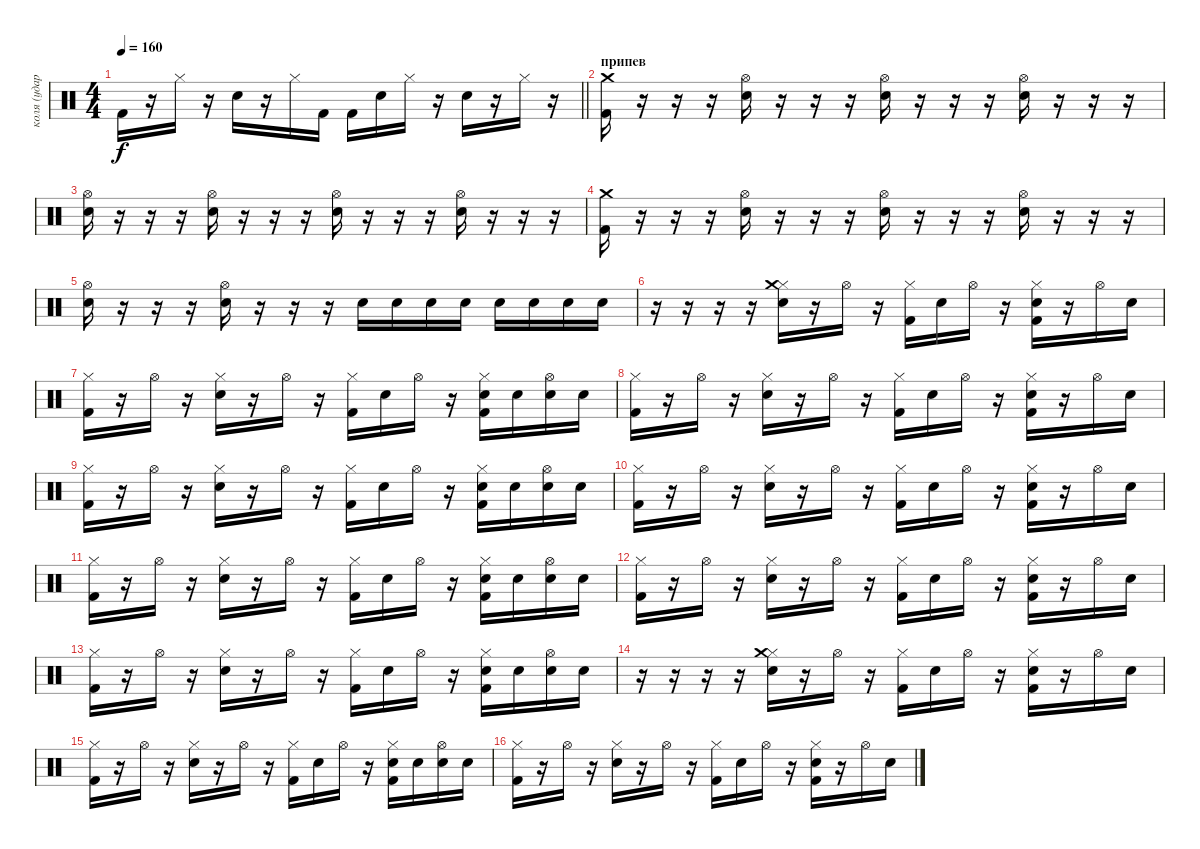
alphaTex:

\track ("коля (ударные)" "коля (удар") {instrument percussion}
\staff {score}
\articulation defaults
\ts (4 4)
\tempo 160
\clef neutral
\barLineRight lightlight
\ks c "Kick (hit) 2".16{dy f}
r.16 "Hi-Hat (closed)".16 r.16 "Snare (hit) 2".16 r.16 "Hi-Hat (closed)".16 "Kick (hit) 2".16 "Kick (hit) 2".16 "Snare (hit) 2".16 "Hi-Hat (closed)".16 r.16 "Snare (hit) 2".16 r.16 "Hi-Hat (closed)".16 r.16 |
\section ("" "припев")
("Kick (hit) 2" "Crash medium (hit)").16 r.16 r.16 r.16 ("Snare (hit) 2" "Hi-Hat (open)").16 r.16 r.16 r.16 ("Snare (hit) 2" "Hi-Hat (open)").16 r.16 r.16 r.16 ("Snare (hit) 2" "Hi-Hat (open)").16 r.16 r.16 r.16 |
("Snare (hit) 2" "Hi-Hat (open)").16 r.16 r.16 r.16 ("Snare (hit) 2" "Hi-Hat (open)").16 r.16 r.16 r.16 ("Snare (hit) 2" "Hi-Hat (open)").16 r.16 r.16 r.16 ("Snare (hit) 2" "Hi-Hat (open)").16 r.16 r.16 r.16 |
("Kick (hit) 2" "Crash medium (hit)").16 r.16 r.16 r.16 ("Snare (hit) 2" "Hi-Hat (open)").16 r.16 r.16 r.16 ("Snare (hit) 2" "Hi-Hat (open)").16 r.16 r.16 r.16 ("Snare (hit) 2" "Hi-Hat (open)").16 r.16 r.16 r.16 |
("Snare (hit) 2" "Hi-Hat (open)").16 r.16 r.16 r.16 ("Snare (hit) 2" "Hi-Hat (open)").16 r.16 r.16 r.16 "Snare (hit) 2".16 "Snare (hit) 2".16 "Snare (hit) 2".16 "Snare (hit) 2".16 "Snare (hit) 2".16 "Snare (hit) 2".16 "Snare (hit) 2".16 "Snare (hit) 2".16 |
r.16 r.16 r.16 r.16 ("Snare (hit) 2" "Hi-Hat (closed)" "Crash medium (hit)").16 r.16 "Hi-Hat (open)".16 r.16 ("Kick (hit) 2" "Hi-Hat (closed)").16 "Snare (hit) 2".16 "Hi-Hat (open)".16 r.16 ("Snare (hit) 2" "Kick (hit) 2" "Hi-Hat (closed)").16 r.16 "Hi-Hat (open)".16 "Snare (hit) 2".16 |
("Kick (hit) 2" "Hi-Hat (closed)").16 r.16 "Hi-Hat (open)".16 r.16 ("Snare (hit) 2" "Hi-Hat (closed)").16 r.16 "Hi-Hat (open)".16 r.16 ("Kick (hit) 2" "Hi-Hat (closed)").16 "Snare (hit) 2".16 "Hi-Hat (open)".16 r.16 ("Snare (hit) 2" "Kick (hit) 2" "Hi-Hat (closed)").16 "Snare (hit) 2".16 ("Snare (hit) 2" "Hi-Hat (open)").16 "Snare (hit) 2".16 |
("Kick (hit) 2" "Hi-Hat (closed)").16 r.16 "Hi-Hat (open)".16 r.16 ("Snare (hit) 2" "Hi-Hat (closed)").16 r.16 "Hi-Hat (open)".16 r.16 ("Kick (hit) 2" "Hi-Hat (closed)").16 "Snare (hit) 2".16 "Hi-Hat (open)".16 r.16 ("Snare (hit) 2" "Kick (hit) 2" "Hi-Hat (closed)").16 r.16 "Hi-Hat (open)".16 "Snare (hit) 2".16 |
("Kick (hit) 2" "Hi-Hat (closed)").16 r.16 "Hi-Hat (open)".16 r.16 ("Snare (hit) 2" "Hi-Hat (closed)").16 r.16 "Hi-Hat (open)".16 r.16 ("Kick (hit) 2" "Hi-Hat (closed)").16 "Snare (hit) 2".16 "Hi-Hat (open)".16 r.16 ("Snare (hit) 2" "Kick (hit) 2" "Hi-Hat (closed)").16 "Snare (hit) 2".16 ("Snare (hit) 2" "Hi-Hat (open)").16 "Snare (hit) 2".16 |
("Kick (hit) 2" "Hi-Hat (closed)").16 r.16 "Hi-Hat (open)".16 r.16 ("Snare (hit) 2" "Hi-Hat (closed)").16 r.16 "Hi-Hat (open)".16 r.16 ("Kick (hit) 2" "Hi-Hat (closed)").16 "Snare (hit) 2".16 "Hi-Hat (open)".16 r.16 ("Snare (hit) 2" "Kick (hit) 2" "Hi-Hat (closed)").16 r.16 "Hi-Hat (open)".16 "Snare (hit) 2".16 |
("Kick (hit) 2" "Hi-Hat (closed)").16 r.16 "Hi-Hat (open)".16 r.16 ("Snare (hit) 2" "Hi-Hat (closed)").16 r.16 "Hi-Hat (open)".16 r.16 ("Kick (hit) 2" "Hi-Hat (closed)").16 "Snare (hit) 2".16 "Hi-Hat (open)".16 r.16 ("Snare (hit) 2" "Kick (hit) 2" "Hi-Hat (closed)").16 "Snare (hit) 2".16 ("Snare (hit) 2" "Hi-Hat (open)").16 "Snare (hit) 2".16 |
("Kick (hit) 2" "Hi-Hat (closed)").16 r.16 "Hi-Hat (open)".16 r.16 ("Snare (hit) 2" "Hi-Hat (closed)").16 r.16 "Hi-Hat (open)".16 r.16 ("Kick (hit) 2" "Hi-Hat (closed)").16 "Snare (hit) 2".16 "Hi-Hat (open)".16 r.16 ("Snare (hit) 2" "Kick (hit) 2" "Hi-Hat (closed)").16 r.16 "Hi-Hat (open)".16 "Snare (hit) 2".16 |
("Kick (hit) 2" "Hi-Hat (closed)").16 r.16 "Hi-Hat (open)".16 r.16 ("Snare (hit) 2" "Hi-Hat (closed)").16 r.16 "Hi-Hat (open)".16 r.16 ("Kick (hit) 2" "Hi-Hat (closed)").16 "Snare (hit) 2".16 "Hi-Hat (open)".16 r.16 ("Snare (hit) 2" "Kick (hit) 2" "Hi-Hat (closed)").16 "Snare (hit) 2".16 ("Snare (hit) 2" "Hi-Hat (open)").16 "Snare (hit) 2".16 |
r.16 r.16 r.16 r.16 ("Snare (hit) 2" "Hi-Hat (closed)" "Crash medium (hit)").16 r.16 "Hi-Hat (open)".16 r.16 ("Kick (hit) 2" "Hi-Hat (closed)").16 "Snare (hit) 2".16 "Hi-Hat (open)".16 r.16 ("Snare (hit) 2" "Kick (hit) 2" "Hi-Hat (closed)").16 r.16 "Hi-Hat (open)".16 "Snare (hit) 2".16 |
("Kick (hit) 2" "Hi-Hat (closed)").16 r.16 "Hi-Hat (open)".16 r.16 ("Snare (hit) 2" "Hi-Hat (closed)").16 r.16 "Hi-Hat (open)".16 r.16 ("Kick (hit) 2" "Hi-Hat (closed)").16 "Snare (hit) 2".16 "Hi-Hat (open)".16 r.16 ("Snare (hit) 2" "Kick (hit) 2" "Hi-Hat (closed)").16 "Snare (hit) 2".16 ("Snare (hit) 2" "Hi-Hat (open)").16 "Snare (hit) 2".16 |
("Kick (hit) 2" "Hi-Hat (closed)").16 r.16 "Hi-Hat (open)".16 r.16 ("Snare (hit) 2" "Hi-Hat (closed)").16 r.16 "Hi-Hat (open)".16 r.16 ("Kick (hit) 2" "Hi-Hat (closed)").16 "Snare (hit) 2".16 "Hi-Hat (open)".16 r.16 ("Snare (hit) 2" "Kick (hit) 2" "Hi-Hat (closed)").16 r.16 "Hi-Hat (open)".16 "Snare (hit) 2".16
